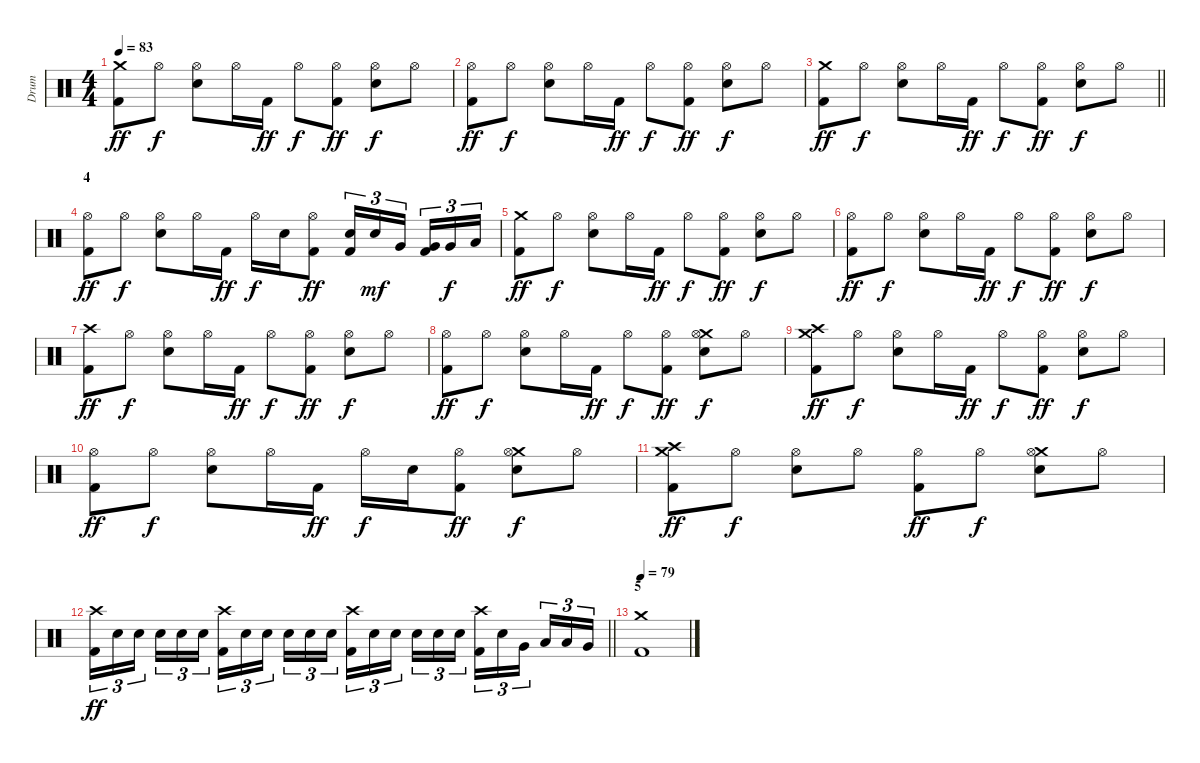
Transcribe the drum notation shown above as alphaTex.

\track ("Drum" "Drum") {instrument percussion}
\staff {score}
\articulation defaults
\ts (4 4)
\tempo 83
\clef neutral
\ks c
("Crash medium (hit)" "Kick (hit) 2").8{dy ff} "Hi-Hat (open)".8{dy f} ("Electric Snare (hit)" "Hi-Hat (open)").8 "Hi-Hat (open)".16 "Kick (hit) 2".16{dy ff} "Hi-Hat (open)".8{dy f} ("Hi-Hat (open)" "Kick (hit) 2").8{dy ff} ("Electric Snare (hit)" "Hi-Hat (open)").8{dy f} "Hi-Hat (open)".8 |
("Hi-Hat (open)" "Kick (hit) 2").8{dy ff} "Hi-Hat (open)".8{dy f} ("Electric Snare (hit)" "Hi-Hat (open)").8 "Hi-Hat (open)".16 "Kick (hit) 2".16{dy ff} "Hi-Hat (open)".8{dy f} ("Hi-Hat (open)" "Kick (hit) 2").8{dy ff} ("Electric Snare (hit)" "Hi-Hat (open)").8{dy f} "Hi-Hat (open)".8 |
\barLineRight lightlight
("Crash medium (hit)" "Kick (hit) 2").8{dy ff} "Hi-Hat (open)".8{dy f} ("Electric Snare (hit)" "Hi-Hat (open)").8 "Hi-Hat (open)".16 "Kick (hit) 2".16{dy ff} "Hi-Hat (open)".8{dy f} ("Hi-Hat (open)" "Kick (hit) 2").8{dy ff} ("Electric Snare (hit)" "Hi-Hat (open)").8{dy f} "Hi-Hat (open)".8 |
\section ("" "4")
("Hi-Hat (open)" "Kick (hit) 2").8{dy ff} "Hi-Hat (open)".8{dy f} ("Electric Snare (hit)" "Hi-Hat (open)").8 "Hi-Hat (open)".16 "Kick (hit) 2".16{dy ff} "Hi-Hat (open)".16{dy f} "Electric Snare (hit)".16 ("Hi-Hat (open)" "Kick (hit) 2").8{dy ff} ("Electric Snare (hit)" "Kick (hit) 2").16{tu (3 2)} "Electric Snare (hit)".16{tu (3 2) dy mf} "Very Low Tom (hit)".16{tu (3 2) beam splitsecondary} ("Very Low Tom (hit)" "Kick (hit) 2").16{tu (3 2)} "Very Low Tom (hit)".16{tu (3 2) dy f} "Low Tom (hit)".16{tu (3 2)} |
("Crash medium (hit)" "Kick (hit) 2").8{dy ff} "Hi-Hat (open)".8{dy f} ("Electric Snare (hit)" "Hi-Hat (open)").8 "Hi-Hat (open)".16 "Kick (hit) 2".16{dy ff} "Hi-Hat (open)".8{dy f} ("Hi-Hat (open)" "Kick (hit) 2").8{dy ff} ("Electric Snare (hit)" "Hi-Hat (open)").8{dy f} "Hi-Hat (open)".8 |
("Hi-Hat (open)" "Kick (hit) 2").8{dy ff} "Hi-Hat (open)".8{dy f} ("Electric Snare (hit)" "Hi-Hat (open)").8 "Hi-Hat (open)".16 "Kick (hit) 2".16{dy ff} "Hi-Hat (open)".8{dy f} ("Hi-Hat (open)" "Kick (hit) 2").8{dy ff} ("Electric Snare (hit)" "Hi-Hat (open)").8{dy f} "Hi-Hat (open)".8 |
("Crash high (hit)" "Kick (hit) 2").8{dy ff} "Hi-Hat (open)".8{dy f} ("Electric Snare (hit)" "Hi-Hat (open)").8 "Hi-Hat (open)".16 "Kick (hit) 2".16{dy ff} "Hi-Hat (open)".8{dy f} ("Hi-Hat (open)" "Kick (hit) 2").8{dy ff} ("Electric Snare (hit)" "Hi-Hat (open)").8{dy f} "Hi-Hat (open)".8 |
("Hi-Hat (open)" "Kick (hit) 2").8{dy ff} "Hi-Hat (open)".8{dy f} ("Electric Snare (hit)" "Hi-Hat (open)").8 "Hi-Hat (open)".16 "Kick (hit) 2".16{dy ff} "Hi-Hat (open)".8{dy f} ("Hi-Hat (open)" "Kick (hit) 2").8{dy ff} ("Crash medium (hit)" "Electric Snare (hit)" "Hi-Hat (open)").8{dy f} "Hi-Hat (open)".8 |
("Crash high (hit)" "Crash medium (hit)" "Kick (hit) 2").8{dy ff} "Hi-Hat (open)".8{dy f} ("Electric Snare (hit)" "Hi-Hat (open)").8 "Hi-Hat (open)".16 "Kick (hit) 2".16{dy ff} "Hi-Hat (open)".8{dy f} ("Hi-Hat (open)" "Kick (hit) 2").8{dy ff} ("Electric Snare (hit)" "Hi-Hat (open)").8{dy f} "Hi-Hat (open)".8 |
("Hi-Hat (open)" "Kick (hit) 2").8{dy ff} "Hi-Hat (open)".8{dy f} ("Electric Snare (hit)" "Hi-Hat (open)").8 "Hi-Hat (open)".16 "Kick (hit) 2".16{dy ff} "Hi-Hat (open)".16{dy f} "Electric Snare (hit)".16 ("Hi-Hat (open)" "Kick (hit) 2").8{dy ff} ("Crash medium (hit)" "Electric Snare (hit)" "Hi-Hat (open)").8{dy f} "Hi-Hat (open)".8 |
("Crash high (hit)" "Crash medium (hit)" "Kick (hit) 2").8{dy ff} "Hi-Hat (open)".8{dy f} ("Electric Snare (hit)" "Hi-Hat (open)").8 "Hi-Hat (open)".8 ("Hi-Hat (open)" "Kick (hit) 2").8{dy ff} "Hi-Hat (open)".8{dy f} ("Crash medium (hit)" "Electric Snare (hit)" "Hi-Hat (open)").8 "Hi-Hat (open)".8 |
\barLineRight lightlight
("Crash high (hit)" "Kick (hit) 2").16{tu (3 2) dy ff} "Electric Snare (hit)".16{tu (3 2)} "Electric Snare (hit)".16{tu (3 2) beam splitsecondary} "Electric Snare (hit)".16{tu (3 2)} "Electric Snare (hit)".16{tu (3 2)} "Electric Snare (hit)".16{tu (3 2)} ("Crash high (hit)" "Kick (hit) 2").16{tu (3 2)} "Electric Snare (hit)".16{tu (3 2)} "Electric Snare (hit)".16{tu (3 2) beam splitsecondary} "Electric Snare (hit)".16{tu (3 2)} "Electric Snare (hit)".16{tu (3 2)} "Electric Snare (hit)".16{tu (3 2)} ("Crash high (hit)" "Kick (hit) 2").16{tu (3 2)} "Electric Snare (hit)".16{tu (3 2)} "Electric Snare (hit)".16{tu (3 2) beam splitsecondary} "Electric Snare (hit)".16{tu (3 2)} "Electric Snare (hit)".16{tu (3 2)} "Electric Snare (hit)".16{tu (3 2)} ("Crash high (hit)" "Kick (hit) 2").16{tu (3 2)} "Electric Snare (hit)".16{tu (3 2)} "Very Low Tom (hit)".16{tu (3 2) beam splitsecondary} "Low Tom (hit)".16{tu (3 2)} "Low Floor Tom (hit)".16{tu (3 2)} "Very Low Tom (hit)".16{tu (3 2)} |
\section ("" "5")
\tempo 79
("Crash medium (hit)" "Kick (hit) 2").1
